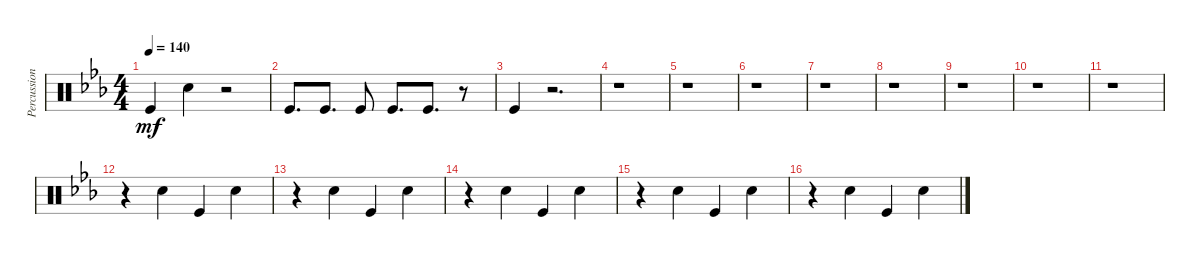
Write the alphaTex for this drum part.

\track ("Percussions" "Percussion") {instrument percussion}
\staff {score}
\articulation defaults
\ts (4 4)
\tempo 140
\clef neutral
\ks cminor "Kick (hit)".4{dy mf} "Snare (hit) 2".4
r.2 |
"Kick (hit)".8{d} "Kick (hit)".8{d} "Kick (hit)".8 "Kick (hit)".8{d} "Kick (hit)".8{d} r.8 |
"Kick (hit)".4 r.2{d} |
r.1 |
r.1 |
r.1 |
r.1 |
r.1 |
r.1 |
r.1 |
r.1 |
r.4 "Snare (hit) 2".4 "Kick (hit)".4 "Snare (hit) 2".4 |
r.4 "Snare (hit) 2".4 "Kick (hit)".4 "Snare (hit) 2".4 |
r.4 "Snare (hit) 2".4 "Kick (hit)".4 "Snare (hit) 2".4 |
r.4 "Snare (hit) 2".4 "Kick (hit)".4 "Snare (hit) 2".4 |
r.4 "Snare (hit) 2".4 "Kick (hit)".4 "Snare (hit) 2".4
